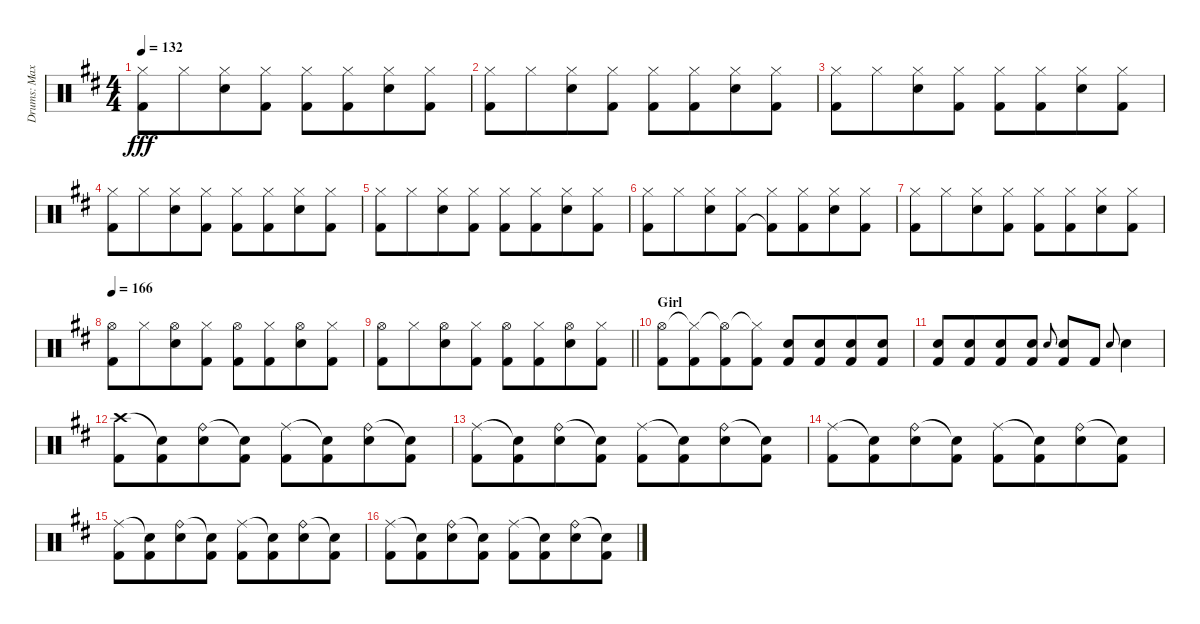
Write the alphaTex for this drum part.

\track ("Drums: Max" "Drums: Max") {instrument percussion}
\staff {score}
\articulation defaults
\ts (4 4)
\tempo 132
\clef neutral
\ks d
("Hi-Hat (closed)"{t} "Kick (hit) 2").8{dy fff} "Hi-Hat (closed)".8{beam merge} ("Hi-Hat (closed)" "Electric Snare (hit)").8 ("Hi-Hat (closed)" "Kick (hit) 2").8 ("Hi-Hat (closed)" "Kick (hit) 2").8 ("Hi-Hat (closed)" "Kick (hit) 2").8{beam merge} ("Hi-Hat (closed)" "Electric Snare (hit)").8 ("Hi-Hat (closed)" "Kick (hit) 2").8 |
("Hi-Hat (closed)" "Kick (hit) 2").8 "Hi-Hat (closed)".8{beam merge} ("Hi-Hat (closed)" "Electric Snare (hit)").8 ("Hi-Hat (closed)" "Kick (hit) 2").8 ("Hi-Hat (closed)" "Kick (hit) 2").8 ("Hi-Hat (closed)" "Kick (hit) 2").8{beam merge} ("Hi-Hat (closed)" "Electric Snare (hit)").8 ("Hi-Hat (closed)" "Kick (hit) 2").8 |
("Hi-Hat (closed)" "Kick (hit) 2").8 "Hi-Hat (closed)".8{beam merge} ("Hi-Hat (closed)" "Electric Snare (hit)").8 ("Hi-Hat (closed)" "Kick (hit) 2").8 ("Hi-Hat (closed)" "Kick (hit) 2").8 ("Hi-Hat (closed)" "Kick (hit) 2").8{beam merge} ("Hi-Hat (closed)" "Electric Snare (hit)").8 ("Hi-Hat (closed)" "Kick (hit) 2").8 |
("Hi-Hat (closed)" "Kick (hit) 2").8 "Hi-Hat (closed)".8{beam merge} ("Hi-Hat (closed)" "Electric Snare (hit)").8 ("Hi-Hat (closed)" "Kick (hit) 2").8 ("Hi-Hat (closed)" "Kick (hit) 2").8 ("Hi-Hat (closed)" "Kick (hit) 2").8{beam merge} ("Hi-Hat (closed)" "Electric Snare (hit)").8 ("Hi-Hat (closed)" "Kick (hit) 2").8 |
("Hi-Hat (closed)" "Kick (hit) 2").8 "Hi-Hat (closed)".8{beam merge} ("Hi-Hat (closed)" "Electric Snare (hit)").8 ("Hi-Hat (closed)" "Kick (hit) 2").8 ("Hi-Hat (closed)" "Kick (hit) 2").8 ("Hi-Hat (closed)" "Kick (hit) 2").8{beam merge} ("Hi-Hat (closed)" "Electric Snare (hit)").8 ("Hi-Hat (closed)" "Kick (hit) 2").8 |
("Hi-Hat (closed)" "Kick (hit) 2").8 "Hi-Hat (closed)".8{beam merge} ("Hi-Hat (closed)" "Electric Snare (hit)").8 ("Hi-Hat (closed)" "Kick (hit) 2").8 ("Hi-Hat (closed)" "Kick (hit) 2"{t}).8 ("Hi-Hat (closed)" "Kick (hit) 2").8{beam merge} ("Hi-Hat (closed)" "Electric Snare (hit)").8 ("Hi-Hat (closed)" "Kick (hit) 2").8 |
("Hi-Hat (closed)" "Kick (hit) 2").8 "Hi-Hat (closed)".8{beam merge} ("Hi-Hat (closed)" "Electric Snare (hit)").8 ("Hi-Hat (closed)" "Kick (hit) 2").8 ("Hi-Hat (closed)" "Kick (hit) 2").8 ("Hi-Hat (closed)" "Kick (hit) 2").8{beam merge} ("Hi-Hat (closed)" "Electric Snare (hit)").8 ("Hi-Hat (closed)" "Kick (hit) 2").8 |
\tempo 166
("Hi-Hat (open)" "Kick (hit) 2").8 "Hi-Hat (closed)".8{beam merge} ("Hi-Hat (open)" "Electric Snare (hit)").8 ("Hi-Hat (closed)" "Kick (hit) 2").8 ("Hi-Hat (open)" "Kick (hit) 2").8 ("Hi-Hat (closed)" "Kick (hit) 2").8{beam merge} ("Hi-Hat (open)" "Electric Snare (hit)").8 ("Hi-Hat (closed)" "Kick (hit) 2").8 |
\barLineRight lightlight
("Hi-Hat (open)" "Kick (hit) 2").8 "Hi-Hat (closed)".8{beam merge} ("Hi-Hat (open)" "Electric Snare (hit)").8 ("Hi-Hat (closed)" "Kick (hit) 2").8 ("Hi-Hat (open)" "Kick (hit) 2").8 ("Hi-Hat (closed)" "Kick (hit) 2").8{beam merge} ("Hi-Hat (open)" "Electric Snare (hit)").8 ("Hi-Hat (closed)" "Kick (hit) 2").8 |
\section ("" "Girl")
("Hi-Hat (open)" "Kick (hit) 2").8 ("Hi-Hat (closed)"{t} "Kick (hit) 2").8{beam merge} ("Hi-Hat (open)"{t} "Kick (hit) 2").8 ("Hi-Hat (closed)"{t} "Kick (hit) 2").8 ("Electric Snare (hit)" "Kick (hit) 2").8 ("Electric Snare (hit)" "Kick (hit) 2").8{beam merge} ("Electric Snare (hit)" "Kick (hit) 2").8 ("Electric Snare (hit)" "Kick (hit) 2").8 |
("Electric Snare (hit)" "Kick (hit) 2").8 ("Electric Snare (hit)" "Kick (hit) 2").8{beam merge} ("Electric Snare (hit)" "Kick (hit) 2").8 ("Electric Snare (hit)" "Kick (hit) 2").8 "Snare (hit) 2".8{gr onbeat} ("Electric Snare (hit)" "Kick (hit) 2").8 "Kick (hit) 2".8 "Snare (hit) 2".8{gr onbeat} "Electric Snare (hit)".4 |
("Crash high (hit)" "Kick (hit) 2").8 ("Snare (hit)"{t} "Kick (hit) 2").8{beam merge} ("Ride (bell)" "Electric Snare (hit)").8 ("Snare (hit)"{t} "Kick (hit) 2").8 ("Ride (middle)" "Kick (hit) 2").8 ("Snare (hit)"{t} "Kick (hit) 2").8{beam merge} ("Ride (bell)" "Electric Snare (hit)").8 ("Snare (hit)"{t} "Kick (hit) 2").8 |
("Ride (middle)" "Kick (hit) 2").8 ("Snare (hit)"{t} "Kick (hit) 2").8{beam merge} ("Ride (bell)" "Electric Snare (hit)").8 ("Snare (hit)"{t} "Kick (hit) 2").8 ("Ride (middle)" "Kick (hit) 2").8 ("Snare (hit)"{t} "Kick (hit) 2").8{beam merge} ("Ride (bell)" "Electric Snare (hit)").8 ("Snare (hit)"{t} "Kick (hit) 2").8 |
("Ride (middle)" "Kick (hit) 2").8 ("Snare (hit)"{t} "Kick (hit) 2").8{beam merge} ("Ride (bell)" "Electric Snare (hit)").8 ("Snare (hit)"{t} "Kick (hit) 2").8 ("Ride (middle)" "Kick (hit) 2").8 ("Snare (hit)"{t} "Kick (hit) 2").8{beam merge} ("Ride (bell)" "Electric Snare (hit)").8 ("Snare (hit)"{t} "Kick (hit) 2").8 |
("Ride (middle)" "Kick (hit) 2").8 ("Snare (hit)"{t} "Kick (hit) 2").8{beam merge} ("Ride (bell)" "Electric Snare (hit)").8 ("Snare (hit)"{t} "Kick (hit) 2").8 ("Ride (middle)" "Kick (hit) 2").8 ("Snare (hit)"{t} "Kick (hit) 2").8{beam merge} ("Ride (bell)" "Electric Snare (hit)").8 ("Snare (hit)"{t} "Kick (hit) 2").8 |
("Ride (middle)" "Kick (hit) 2").8 ("Snare (hit)"{t} "Kick (hit) 2").8{beam merge} ("Ride (bell)" "Electric Snare (hit)").8 ("Snare (hit)"{t} "Kick (hit) 2").8 ("Ride (middle)" "Kick (hit) 2").8 ("Snare (hit)"{t} "Kick (hit) 2").8{beam merge} ("Ride (bell)" "Electric Snare (hit)").8 ("Snare (hit)"{t} "Kick (hit) 2").8
